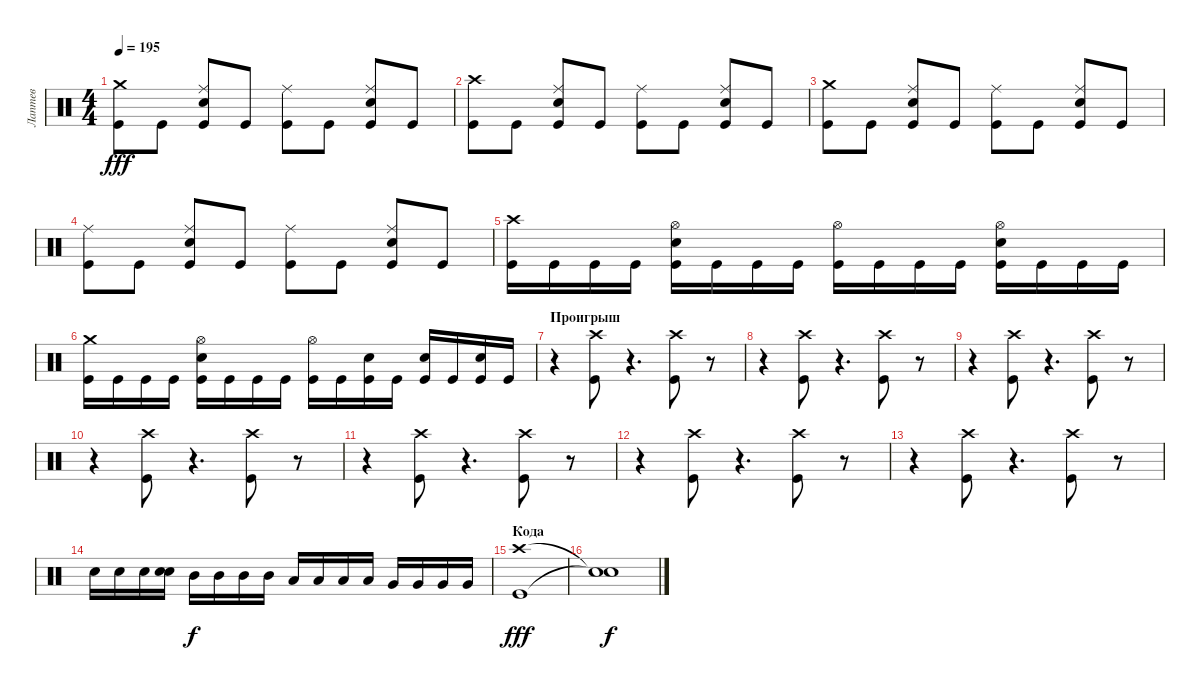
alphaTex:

\track ("Лаптев" "Лаптев") {instrument percussion}
\staff {score}
\articulation defaults
\ts (4 4)
\tempo 195
\clef neutral
\ks c
("Crash medium (hit)" "Kick (hit)").8{dy fff} "Kick (hit)".8 ("Ride (middle)" "Electric Snare (hit)" "Kick (hit)").8 "Kick (hit)".8 ("Ride (middle)" "Kick (hit)").8 "Kick (hit)".8 ("Ride (middle)" "Electric Snare (hit)" "Kick (hit)").8 "Kick (hit)".8 |
("Crash high (hit)" "Kick (hit)").8 "Kick (hit)".8 ("Ride (middle)" "Electric Snare (hit)" "Kick (hit)").8 "Kick (hit)".8 ("Ride (middle)" "Kick (hit)").8 "Kick (hit)".8 ("Ride (middle)" "Electric Snare (hit)" "Kick (hit)").8 "Kick (hit)".8 |
("Crash medium (hit)" "Kick (hit)").8 "Kick (hit)".8 ("Ride (middle)" "Electric Snare (hit)" "Kick (hit)").8 "Kick (hit)".8 ("Ride (middle)" "Kick (hit)").8 "Kick (hit)".8 ("Ride (middle)" "Electric Snare (hit)" "Kick (hit)").8 "Kick (hit)".8 |
("Ride (middle)" "Kick (hit)").8 "Kick (hit)".8 ("Ride (middle)" "Electric Snare (hit)" "Kick (hit)").8 "Kick (hit)".8 ("Ride (middle)" "Kick (hit)").8 "Kick (hit)".8 ("Ride (middle)" "Electric Snare (hit)" "Kick (hit)").8 "Kick (hit)".8 |
("Crash high (hit)" "Kick (hit)").16 "Kick (hit)".16 "Kick (hit)".16 "Kick (hit)".16 ("Hi-Hat (open)" "Electric Snare (hit)" "Kick (hit)").16 "Kick (hit)".16 "Kick (hit)".16 "Kick (hit)".16 ("Hi-Hat (open)" "Kick (hit)").16 "Kick (hit)".16 "Kick (hit)".16 "Kick (hit)".16 ("Hi-Hat (open)" "Electric Snare (hit)" "Kick (hit)").16 "Kick (hit)".16 "Kick (hit)".16 "Kick (hit)".16 |
("Crash medium (hit)" "Kick (hit)").16 "Kick (hit)".16 "Kick (hit)".16 "Kick (hit)".16 ("Hi-Hat (open)" "Electric Snare (hit)" "Kick (hit)").16 "Kick (hit)".16 "Kick (hit)".16 "Kick (hit)".16 ("Hi-Hat (open)" "Kick (hit)").16 "Kick (hit)".16 ("Electric Snare (hit)" "Kick (hit)").16 "Kick (hit)".16 ("Electric Snare (hit)" "Kick (hit)").16 "Kick (hit)".16 ("Electric Snare (hit)" "Kick (hit)").16 "Kick (hit)".16 |
\section ("" "Проигрыш ")
r.4 ("Crash high (hit)" "Kick (hit)").8 r.4{d} ("Crash high (hit)" "Kick (hit)").8 r.8 |
r.4 ("Crash high (hit)" "Kick (hit)").8 r.4{d} ("Crash high (hit)" "Kick (hit)").8 r.8 |
r.4 ("Crash high (hit)" "Kick (hit)").8 r.4{d} ("Crash high (hit)" "Kick (hit)").8 r.8 |
r.4 ("Crash high (hit)" "Kick (hit)").8 r.4{d} ("Crash high (hit)" "Kick (hit)").8 r.8 |
r.4 ("Crash high (hit)" "Kick (hit)").8 r.4{d} ("Crash high (hit)" "Kick (hit)").8 r.8 |
r.4 ("Crash high (hit)" "Kick (hit)").8 r.4{d} ("Crash high (hit)" "Kick (hit)").8 r.8 |
r.4 ("Crash high (hit)" "Kick (hit)").8 r.4{d} ("Crash high (hit)" "Kick (hit)").8 r.8 |
"Electric Snare (hit)".16 "Electric Snare (hit)".16 "Electric Snare (hit)".16 ("Electric Snare (hit)" "Electric Snare (hit)").16 "Mid Tom (hit)".16{dy f} "Mid Tom (hit)".16 "Mid Tom (hit)".16 "Mid Tom (hit)".16 "Low Tom (hit)".16 "Low Tom (hit)".16 "Low Tom (hit)".16 "Low Tom (hit)".16 "Very Low Tom (hit)".16 "Very Low Tom (hit)".16 "Very Low Tom (hit)".16 "Very Low Tom (hit)".16 |
\section ("" "Кода")
("Crash high (hit)" "Kick (hit)").1{dy fff} |
("Snare (hit)"{t} "Snare (hit)"{t}).1{dy f}
